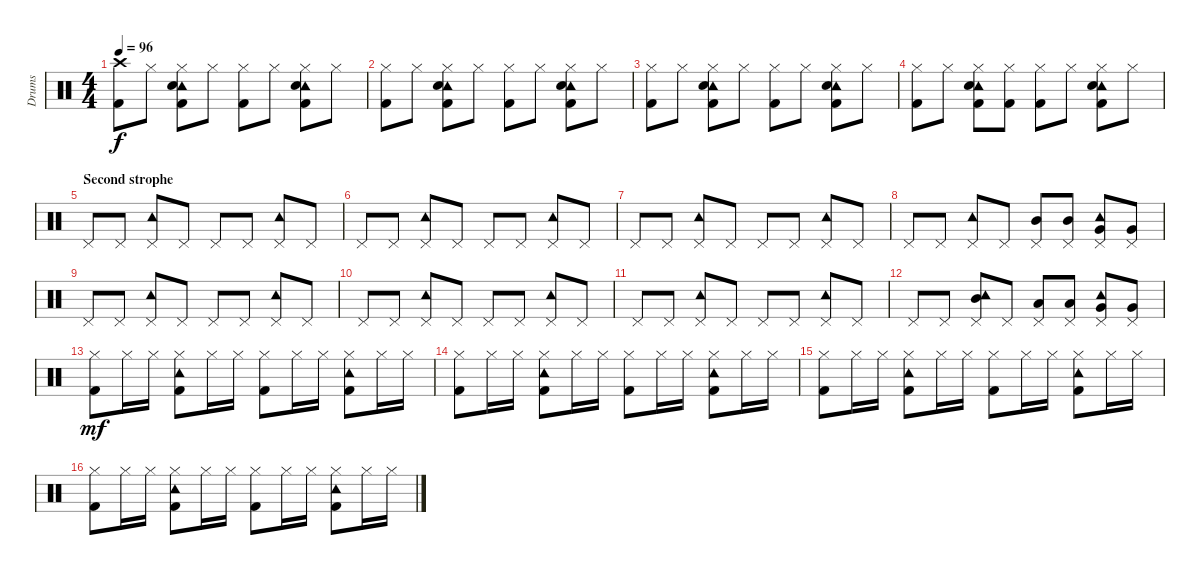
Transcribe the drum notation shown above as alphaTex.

\track ("Drums" "Drums") {instrument percussion}
\staff {score}
\articulation defaults
\ts (4 4)
\tempo 96
\clef neutral
\ks c
("Crash high (hit)" "Kick (hit) 2").8{dy f} "Hi-Hat (closed)".8 ("Hi-Hat (closed)" "Tambourine (hit)" "Snare (hit) 2" "Kick (hit) 2").8 "Hi-Hat (closed)".8 ("Hi-Hat (closed)" "Kick (hit) 2").8 "Hi-Hat (closed)".8 ("Hi-Hat (closed)" "Tambourine (hit)" "Snare (hit) 2" "Kick (hit) 2").8 "Hi-Hat (closed)".8 |
("Hi-Hat (closed)" "Kick (hit) 2").8 "Hi-Hat (closed)".8 ("Hi-Hat (closed)" "Tambourine (hit)" "Snare (hit) 2" "Kick (hit) 2").8 "Hi-Hat (closed)".8 ("Hi-Hat (closed)" "Kick (hit) 2").8 "Hi-Hat (closed)".8 ("Hi-Hat (closed)" "Tambourine (hit)" "Snare (hit) 2" "Kick (hit) 2").8 "Hi-Hat (closed)".8 |
("Hi-Hat (closed)" "Kick (hit) 2").8 "Hi-Hat (closed)".8 ("Hi-Hat (closed)" "Tambourine (hit)" "Snare (hit) 2" "Kick (hit) 2").8 "Hi-Hat (closed)".8 ("Hi-Hat (closed)" "Kick (hit) 2").8 "Hi-Hat (closed)".8 ("Hi-Hat (closed)" "Tambourine (hit)" "Snare (hit) 2" "Kick (hit) 2").8 "Hi-Hat (closed)".8 |
("Hi-Hat (closed)" "Kick (hit) 2").8 "Hi-Hat (closed)".8 ("Hi-Hat (closed)" "Tambourine (hit)" "Snare (hit) 2" "Kick (hit) 2").8 ("Hi-Hat (closed)" "Kick (hit) 2").8 ("Hi-Hat (closed)" "Kick (hit) 2").8 "Hi-Hat (closed)".8 ("Hi-Hat (closed)" "Tambourine (hit)" "Snare (hit) 2" "Kick (hit) 2").8 "Hi-Hat (closed)".8 |
\section ("" "Second strophe")
"Pedal Hi-Hat (hit)".8 "Pedal Hi-Hat (hit)".8 ("Pedal Hi-Hat (hit)" "Tambourine (hit)").8 "Pedal Hi-Hat (hit)".8 "Pedal Hi-Hat (hit)".8 "Pedal Hi-Hat (hit)".8 ("Pedal Hi-Hat (hit)" "Tambourine (hit)").8 "Pedal Hi-Hat (hit)".8 |
"Pedal Hi-Hat (hit)".8 "Pedal Hi-Hat (hit)".8 ("Pedal Hi-Hat (hit)" "Tambourine (hit)").8 "Pedal Hi-Hat (hit)".8 "Pedal Hi-Hat (hit)".8 "Pedal Hi-Hat (hit)".8 ("Pedal Hi-Hat (hit)" "Tambourine (hit)").8 "Pedal Hi-Hat (hit)".8 |
"Pedal Hi-Hat (hit)".8 "Pedal Hi-Hat (hit)".8 ("Pedal Hi-Hat (hit)" "Tambourine (hit)").8 "Pedal Hi-Hat (hit)".8 "Pedal Hi-Hat (hit)".8 "Pedal Hi-Hat (hit)".8 ("Pedal Hi-Hat (hit)" "Tambourine (hit)").8 "Pedal Hi-Hat (hit)".8 |
"Pedal Hi-Hat (hit)".8 "Pedal Hi-Hat (hit)".8 ("Pedal Hi-Hat (hit)" "Tambourine (hit)").8 "Pedal Hi-Hat (hit)".8 ("Pedal Hi-Hat (hit)" "Mid Tom (hit)").8 ("Pedal Hi-Hat (hit)" "Mid Tom (hit)").8 ("Pedal Hi-Hat (hit)" "Tambourine (hit)" "Very Low Tom (hit)").8 ("Pedal Hi-Hat (hit)" "Very Low Tom (hit)").8 |
"Pedal Hi-Hat (hit)".8 "Pedal Hi-Hat (hit)".8 ("Pedal Hi-Hat (hit)" "Tambourine (hit)").8 "Pedal Hi-Hat (hit)".8 "Pedal Hi-Hat (hit)".8 "Pedal Hi-Hat (hit)".8 ("Pedal Hi-Hat (hit)" "Tambourine (hit)").8 "Pedal Hi-Hat (hit)".8 |
"Pedal Hi-Hat (hit)".8 "Pedal Hi-Hat (hit)".8 ("Pedal Hi-Hat (hit)" "Tambourine (hit)").8 "Pedal Hi-Hat (hit)".8 "Pedal Hi-Hat (hit)".8 "Pedal Hi-Hat (hit)".8 ("Pedal Hi-Hat (hit)" "Tambourine (hit)").8 "Pedal Hi-Hat (hit)".8 |
"Pedal Hi-Hat (hit)".8 "Pedal Hi-Hat (hit)".8 ("Pedal Hi-Hat (hit)" "Tambourine (hit)").8 "Pedal Hi-Hat (hit)".8 "Pedal Hi-Hat (hit)".8 "Pedal Hi-Hat (hit)".8 ("Pedal Hi-Hat (hit)" "Tambourine (hit)").8 "Pedal Hi-Hat (hit)".8 |
"Pedal Hi-Hat (hit)".8 "Pedal Hi-Hat (hit)".8 ("Pedal Hi-Hat (hit)" "Tambourine (hit)" "Mid Tom (hit)").8 "Pedal Hi-Hat (hit)".8 ("Pedal Hi-Hat (hit)" "Low Tom (hit)").8 ("Pedal Hi-Hat (hit)" "Low Tom (hit)").8 ("Pedal Hi-Hat (hit)" "Tambourine (hit)" "Very Low Tom (hit)").8 ("Pedal Hi-Hat (hit)" "Very Low Tom (hit)").8 |
("Hi-Hat (closed)" "Kick (hit) 2").8{dy mf} "Hi-Hat (closed)".16 "Hi-Hat (closed)".16 ("Hi-Hat (closed)" "Tambourine (hit)" "Kick (hit) 2").8 "Hi-Hat (closed)".16 "Hi-Hat (closed)".16 ("Hi-Hat (closed)" "Kick (hit) 2").8 "Hi-Hat (closed)".16 "Hi-Hat (closed)".16 ("Hi-Hat (closed)" "Tambourine (hit)" "Kick (hit) 2").8 "Hi-Hat (closed)".16 "Hi-Hat (closed)".16 |
("Hi-Hat (closed)" "Kick (hit) 2").8 "Hi-Hat (closed)".16 "Hi-Hat (closed)".16 ("Hi-Hat (closed)" "Tambourine (hit)" "Kick (hit) 2").8 "Hi-Hat (closed)".16 "Hi-Hat (closed)".16 ("Hi-Hat (closed)" "Kick (hit) 2").8 "Hi-Hat (closed)".16 "Hi-Hat (closed)".16 ("Hi-Hat (closed)" "Tambourine (hit)" "Kick (hit) 2").8 "Hi-Hat (closed)".16 "Hi-Hat (closed)".16 |
("Hi-Hat (closed)" "Kick (hit) 2").8 "Hi-Hat (closed)".16 "Hi-Hat (closed)".16 ("Hi-Hat (closed)" "Tambourine (hit)" "Kick (hit) 2").8 "Hi-Hat (closed)".16 "Hi-Hat (closed)".16 ("Hi-Hat (closed)" "Kick (hit) 2").8 "Hi-Hat (closed)".16 "Hi-Hat (closed)".16 ("Hi-Hat (closed)" "Tambourine (hit)" "Kick (hit) 2").8 "Hi-Hat (closed)".16 "Hi-Hat (closed)".16 |
("Hi-Hat (closed)" "Kick (hit) 2").8 "Hi-Hat (closed)".16 "Hi-Hat (closed)".16 ("Hi-Hat (closed)" "Tambourine (hit)" "Kick (hit) 2").8 "Hi-Hat (closed)".16 "Hi-Hat (closed)".16 ("Hi-Hat (closed)" "Kick (hit) 2").8 "Hi-Hat (closed)".16 "Hi-Hat (closed)".16 ("Hi-Hat (closed)" "Tambourine (hit)" "Kick (hit) 2").8 "Hi-Hat (closed)".16 "Hi-Hat (closed)".16
